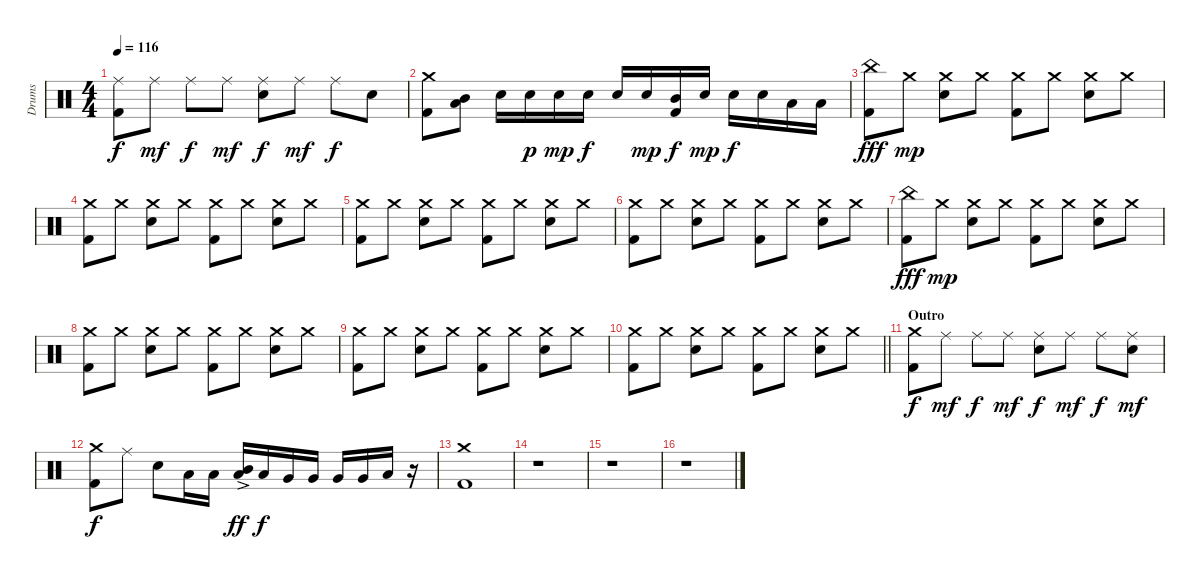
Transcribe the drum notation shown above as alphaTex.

\track ("Drums" "Drums") {instrument percussion}
\staff {score}
\articulation defaults
\ts (4 4)
\tempo 116
\clef neutral
\ks c
("Ride (middle)" "Kick (hit) 2").8{dy f} "Ride (middle)".8{dy mf} "Ride (middle)".8{dy f} "Ride (middle)".8{dy mf} ("Ride (middle)" "Electric Snare (hit)").8{dy f} "Ride (middle)".8{dy mf} "Ride (middle)".8{dy f} "Electric Snare (hit)".8 |
("Crash medium (hit)" "Kick (hit) 2").8 ("Mid Tom (hit)" "Low Tom (hit)").8 "Electric Snare (hit)".16 "Electric Snare (hit)".16{dy p} "Electric Snare (hit)".16{dy mp} "Electric Snare (hit)".16{dy f} "Electric Snare (hit)".16 "Electric Snare (hit)".16{dy mp} ("Mid Tom (hit)" "Kick (hit) 2").16{dy f} "Electric Snare (hit)".16{dy mp} "Electric Snare (hit)".16{dy f} "Electric Snare (hit)".16 "Low Tom (hit)".16 "Low Tom (hit)".16 |
("China (hit)" "Kick (hit) 2").8{dy fff} "Crash medium (hit)".8{dy mp} ("Crash medium (hit)" "Electric Snare (hit)").8 "Crash medium (hit)".8 ("Crash medium (hit)" "Kick (hit) 2").8 "Crash medium (hit)".8 ("Crash medium (hit)" "Electric Snare (hit)").8 "Crash medium (hit)".8 |
("Crash medium (hit)" "Kick (hit) 2").8 "Crash medium (hit)".8 ("Crash medium (hit)" "Electric Snare (hit)").8 "Crash medium (hit)".8 ("Crash medium (hit)" "Kick (hit) 2").8 "Crash medium (hit)".8 ("Crash medium (hit)" "Electric Snare (hit)").8 "Crash medium (hit)".8 |
("Crash medium (hit)" "Kick (hit) 2").8 "Crash medium (hit)".8 ("Crash medium (hit)" "Electric Snare (hit)").8 "Crash medium (hit)".8 ("Crash medium (hit)" "Kick (hit) 2").8 "Crash medium (hit)".8 ("Crash medium (hit)" "Electric Snare (hit)").8 "Crash medium (hit)".8 |
("Crash medium (hit)" "Kick (hit) 2").8 "Crash medium (hit)".8 ("Crash medium (hit)" "Electric Snare (hit)").8 "Crash medium (hit)".8 ("Crash medium (hit)" "Kick (hit) 2").8 "Crash medium (hit)".8 ("Crash medium (hit)" "Electric Snare (hit)").8 "Crash medium (hit)".8 |
("China (hit)" "Kick (hit) 2").8{dy fff} "Crash medium (hit)".8{dy mp} ("Crash medium (hit)" "Electric Snare (hit)").8 "Crash medium (hit)".8 ("Crash medium (hit)" "Kick (hit) 2").8 "Crash medium (hit)".8 ("Crash medium (hit)" "Electric Snare (hit)").8 "Crash medium (hit)".8 |
("Crash medium (hit)" "Kick (hit) 2").8 "Crash medium (hit)".8 ("Crash medium (hit)" "Electric Snare (hit)").8 "Crash medium (hit)".8 ("Crash medium (hit)" "Kick (hit) 2").8 "Crash medium (hit)".8 ("Crash medium (hit)" "Electric Snare (hit)").8 "Crash medium (hit)".8 |
("Crash medium (hit)" "Kick (hit) 2").8 "Crash medium (hit)".8 ("Crash medium (hit)" "Electric Snare (hit)").8 "Crash medium (hit)".8 ("Crash medium (hit)" "Kick (hit) 2").8 "Crash medium (hit)".8 ("Crash medium (hit)" "Electric Snare (hit)").8 "Crash medium (hit)".8 |
\barLineRight lightlight
("Crash medium (hit)" "Kick (hit) 2").8 "Crash medium (hit)".8 ("Crash medium (hit)" "Electric Snare (hit)").8 "Crash medium (hit)".8 ("Crash medium (hit)" "Kick (hit) 2").8 "Crash medium (hit)".8 ("Crash medium (hit)" "Electric Snare (hit)").8 "Crash medium (hit)".8 |
\section ("" "Outro")
("Crash medium (hit)" "Kick (hit) 2").8{dy f} "Ride (middle)".8{dy mf} "Ride (middle)".8{dy f} "Ride (middle)".8{dy mf} ("Ride (middle)" "Electric Snare (hit)").8{dy f} "Ride (middle)".8{dy mf} "Ride (middle)".8{dy f} ("Ride (middle)" "Electric Snare (hit)").8{dy mf} |
("Crash medium (hit)" "Kick (hit) 2").8{dy f} "Ride (middle)".8 "Electric Snare (hit)".8 "Low Tom (hit)".16 "Low Tom (hit)".16 ("Low Tom (hit)"{ac} "Mid Tom (hit)"{ac}).16{dy ff} "Low Tom (hit)".16{dy f} "Very Low Tom (hit)".16 "Very Low Tom (hit)".16 "Very Low Tom (hit)".16 "Very Low Tom (hit)".16 "Low Floor Tom (hit)".16 r.16 |
("Crash medium (hit)" "Kick (hit) 2").1 |
r.1 |
r.1 |
r.1
